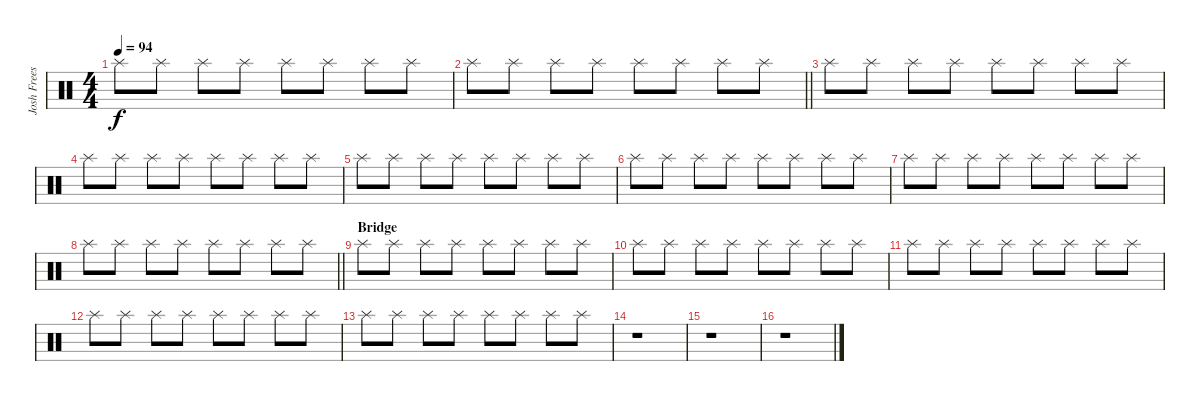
\track ("Josh Freese (Studio Drummer)" "Josh Frees") {instrument percussion}
\staff {score}
\articulation defaults
\ts (4 4)
\tempo 94
\clef neutral
\ks c "Splash (hit)".8{dy f} "Splash (hit)".8 "Splash (hit)".8 "Splash (hit)".8 "Splash (hit)".8 "Splash (hit)".8 "Splash (hit)".8 "Splash (hit)".8
|
\barLineRight lightlight "Splash (hit)".8 "Splash (hit)".8 "Splash (hit)".8 "Splash (hit)".8 "Splash (hit)".8 "Splash (hit)".8 "Splash (hit)".8 "Splash (hit)".8
|
"Splash (hit)".8 "Splash (hit)".8 "Splash (hit)".8 "Splash (hit)".8 "Splash (hit)".8 "Splash (hit)".8 "Splash (hit)".8 "Splash (hit)".8 |
"Splash (hit)".8 "Splash (hit)".8 "Splash (hit)".8 "Splash (hit)".8 "Splash (hit)".8 "Splash (hit)".8 "Splash (hit)".8 "Splash (hit)".8 |
"Splash (hit)".8 "Splash (hit)".8 "Splash (hit)".8 "Splash (hit)".8 "Splash (hit)".8 "Splash (hit)".8 "Splash (hit)".8 "Splash (hit)".8 |
"Splash (hit)".8 "Splash (hit)".8 "Splash (hit)".8 "Splash (hit)".8 "Splash (hit)".8 "Splash (hit)".8 "Splash (hit)".8 "Splash (hit)".8 |
"Splash (hit)".8 "Splash (hit)".8 "Splash (hit)".8 "Splash (hit)".8 "Splash (hit)".8 "Splash (hit)".8 "Splash (hit)".8 "Splash (hit)".8 |
\barLineRight lightlight "Splash (hit)".8 "Splash (hit)".8 "Splash (hit)".8 "Splash (hit)".8 "Splash (hit)".8 "Splash (hit)".8 "Splash (hit)".8 "Splash (hit)".8
|
\section ("" "Bridge")
"Splash (hit)".8 "Splash (hit)".8 "Splash (hit)".8 "Splash (hit)".8 "Splash (hit)".8 "Splash (hit)".8 "Splash (hit)".8 "Splash (hit)".8 |
"Splash (hit)".8 "Splash (hit)".8 "Splash (hit)".8 "Splash (hit)".8 "Splash (hit)".8 "Splash (hit)".8 "Splash (hit)".8 "Splash (hit)".8 |
"Splash (hit)".8 "Splash (hit)".8 "Splash (hit)".8 "Splash (hit)".8 "Splash (hit)".8 "Splash (hit)".8 "Splash (hit)".8 "Splash (hit)".8 |
"Splash (hit)".8 "Splash (hit)".8 "Splash (hit)".8 "Splash (hit)".8 "Splash (hit)".8 "Splash (hit)".8 "Splash (hit)".8 "Splash (hit)".8 |
"Splash (hit)".8 "Splash (hit)".8 "Splash (hit)".8 "Splash (hit)".8 "Splash (hit)".8 "Splash (hit)".8 "Splash (hit)".8 "Splash (hit)".8 |
r.1 |
r.1 |
r.1
